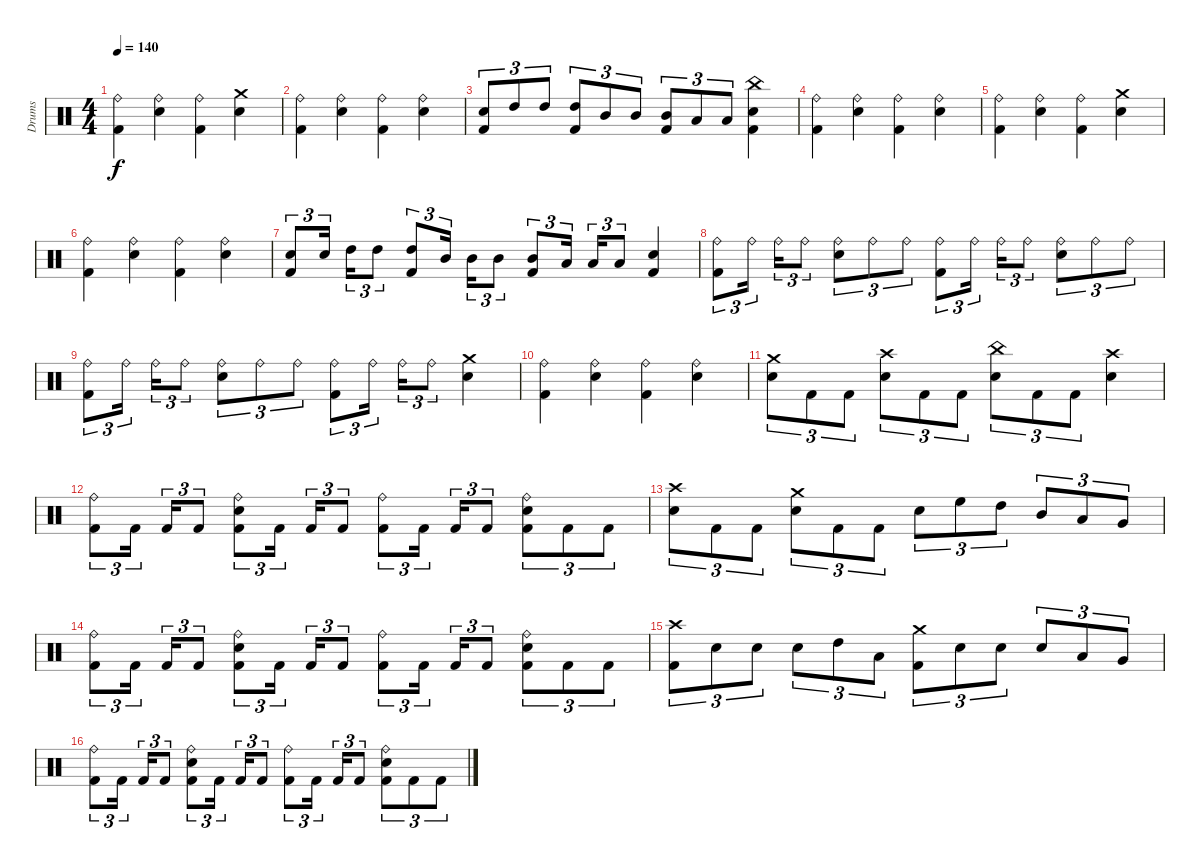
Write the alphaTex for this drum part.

\track ("Drums" "Drums") {instrument percussion}
\staff {score}
\articulation defaults
\ts (4 4)
\tempo 140
\clef neutral
\ks c
("Ride (bell)" "Kick (hit) 2").4{dy f} ("Ride (bell)" "Electric Snare (hit)").4 ("Ride (bell)" "Kick (hit) 2").4 ("Crash medium (hit)" "Electric Snare (hit)").4 |
("Ride (bell)" "Kick (hit) 2").4 ("Ride (bell)" "Electric Snare (hit)").4 ("Ride (bell)" "Kick (hit) 2").4 ("Ride (bell)" "Electric Snare (hit)").4 |
("Electric Snare (hit)" "Kick (hit) 2").8{tu (3 2)} "High Tom (hit)".8{tu (3 2)} "High Tom (hit)".8{tu (3 2)} ("High Tom (hit)" "Kick (hit) 2").8{tu (3 2)} "Mid Tom (hit)".8{tu (3 2)} "Mid Tom (hit)".8{tu (3 2)} ("Mid Tom (hit)" "Kick (hit) 2").8{tu (3 2)} "Low Tom (hit)".8{tu (3 2)} "Low Tom (hit)".8{tu (3 2)} ("China (hit)" "Electric Snare (hit)" "Kick (hit) 2").4 |
("Ride (bell)" "Kick (hit) 2").4 ("Ride (bell)" "Electric Snare (hit)").4 ("Ride (bell)" "Kick (hit) 2").4 ("Ride (bell)" "Electric Snare (hit)").4 |
("Ride (bell)" "Kick (hit) 2").4 ("Ride (bell)" "Electric Snare (hit)").4 ("Ride (bell)" "Kick (hit) 2").4 ("Crash medium (hit)" "Electric Snare (hit)").4 |
("Ride (bell)" "Kick (hit) 2").4 ("Ride (bell)" "Electric Snare (hit)").4 ("Ride (bell)" "Kick (hit) 2").4 ("Ride (bell)" "Electric Snare (hit)").4 |
("Electric Snare (hit)" "Kick (hit) 2").8{tu (3 2)} "Electric Snare (hit)".16{tu (3 2)} "High Tom (hit)".16{tu (3 2)} "High Tom (hit)".8{tu (3 2)} ("High Tom (hit)" "Kick (hit) 2").8{tu (3 2)} "Mid Tom (hit)".16{tu (3 2)} "Mid Tom (hit)".16{tu (3 2)} "Mid Tom (hit)".8{tu (3 2)} ("Mid Tom (hit)" "Kick (hit) 2").8{tu (3 2)} "Low Tom (hit)".16{tu (3 2)} "Low Tom (hit)".16{tu (3 2)} "Low Tom (hit)".8{tu (3 2)} ("Electric Snare (hit)" "Kick (hit) 2").4 |
("Ride (bell)" "Kick (hit) 2").8{tu (3 2)} "Ride (bell)".16{tu (3 2)} "Ride (bell)".16{tu (3 2)} "Ride (bell)".8{tu (3 2)} ("Ride (bell)" "Electric Snare (hit)").8{tu (3 2)} "Ride (bell)".8{tu (3 2)} "Ride (bell)".8{tu (3 2)} ("Ride (bell)" "Kick (hit) 2").8{tu (3 2)} "Ride (bell)".16{tu (3 2)} "Ride (bell)".16{tu (3 2)} "Ride (bell)".8{tu (3 2)} ("Ride (bell)" "Electric Snare (hit)").8{tu (3 2)} "Ride (bell)".8{tu (3 2)} "Ride (bell)".8{tu (3 2)} |
("Ride (bell)" "Kick (hit) 2").8{tu (3 2)} "Ride (bell)".16{tu (3 2)} "Ride (bell)".16{tu (3 2)} "Ride (bell)".8{tu (3 2)} ("Ride (bell)" "Electric Snare (hit)").8{tu (3 2)} "Ride (bell)".8{tu (3 2)} "Ride (bell)".8{tu (3 2)} ("Ride (bell)" "Kick (hit) 2").8{tu (3 2)} "Ride (bell)".16{tu (3 2)} "Ride (bell)".16{tu (3 2)} "Ride (bell)".8{tu (3 2)} ("Crash medium (hit)" "Electric Snare (hit)").4 |
("Ride (bell)" "Kick (hit) 2").4 ("Ride (bell)" "Electric Snare (hit)").4 ("Ride (bell)" "Kick (hit) 2").4 ("Ride (bell)" "Electric Snare (hit)").4 |
("Crash medium (hit)" "Electric Snare (hit)").8{tu (3 2)} "Kick (hit) 2".8{tu (3 2)} "Kick (hit) 2".8{tu (3 2)} ("Crash high (hit)" "Electric Snare (hit)").8{tu (3 2)} "Kick (hit) 2".8{tu (3 2)} "Kick (hit) 2".8{tu (3 2)} ("China (hit)" "Electric Snare (hit)").8{tu (3 2)} "Kick (hit) 2".8{tu (3 2)} "Kick (hit) 2".8{tu (3 2)} ("Crash high (hit)" "Electric Snare (hit)").4 |
\section ("" "")
("Ride (bell)" "Kick (hit) 2").8{tu (3 2)} "Kick (hit) 2".16{tu (3 2)} "Kick (hit) 2".16{tu (3 2)} "Kick (hit) 2".8{tu (3 2)} ("Ride (bell)" "Electric Snare (hit)" "Kick (hit) 2").8{tu (3 2)} "Kick (hit) 2".16{tu (3 2)} "Kick (hit) 2".16{tu (3 2)} "Kick (hit) 2".8{tu (3 2)} ("Ride (bell)" "Kick (hit) 2").8{tu (3 2)} "Kick (hit) 2".16{tu (3 2)} "Kick (hit) 2".16{tu (3 2)} "Kick (hit) 2".8{tu (3 2)} ("Ride (bell)" "Electric Snare (hit)" "Kick (hit) 2").8{tu (3 2)} "Kick (hit) 2".8{tu (3 2)} "Kick (hit) 2".8{tu (3 2)} |
("Crash high (hit)" "Electric Snare (hit)").8{tu (3 2)} "Kick (hit) 2".8{tu (3 2)} "Kick (hit) 2".8{tu (3 2)} ("Crash medium (hit)" "Electric Snare (hit)").8{tu (3 2)} "Kick (hit) 2".8{tu (3 2)} "Kick (hit) 2".8{tu (3 2)} "Electric Snare (hit)".8{tu (3 2)} "High Floor Tom (hit)".8{tu (3 2)} "High Tom (hit)".8{tu (3 2)} "Mid Tom (hit)".8{tu (3 2)} "Low Tom (hit)".8{tu (3 2)} "Very Low Tom (hit)".8{tu (3 2)} |
("Ride (bell)" "Kick (hit) 2").8{tu (3 2)} "Kick (hit) 2".16{tu (3 2)} "Kick (hit) 2".16{tu (3 2)} "Kick (hit) 2".8{tu (3 2)} ("Ride (bell)" "Electric Snare (hit)" "Kick (hit) 2").8{tu (3 2)} "Kick (hit) 2".16{tu (3 2)} "Kick (hit) 2".16{tu (3 2)} "Kick (hit) 2".8{tu (3 2)} ("Ride (bell)" "Kick (hit) 2").8{tu (3 2)} "Kick (hit) 2".16{tu (3 2)} "Kick (hit) 2".16{tu (3 2)} "Kick (hit) 2".8{tu (3 2)} ("Ride (bell)" "Electric Snare (hit)" "Kick (hit) 2").8{tu (3 2)} "Kick (hit) 2".8{tu (3 2)} "Kick (hit) 2".8{tu (3 2)} |
("Crash high (hit)" "Kick (hit) 2").8{tu (3 2)} "Electric Snare (hit)".8{tu (3 2)} "Electric Snare (hit)".8{tu (3 2)} "Electric Snare (hit)".8{tu (3 2)} "High Tom (hit)".8{tu (3 2)} "Low Tom (hit)".8{tu (3 2)} ("Crash medium (hit)" "Kick (hit) 2").8{tu (3 2)} "Electric Snare (hit)".8{tu (3 2)} "Electric Snare (hit)".8{tu (3 2)} "Electric Snare (hit)".8{tu (3 2)} "Low Tom (hit)".8{tu (3 2)} "Very Low Tom (hit)".8{tu (3 2)} |
("Ride (bell)" "Kick (hit) 2").8{tu (3 2)} "Kick (hit) 2".16{tu (3 2)} "Kick (hit) 2".16{tu (3 2)} "Kick (hit) 2".8{tu (3 2)} ("Ride (bell)" "Electric Snare (hit)" "Kick (hit) 2").8{tu (3 2)} "Kick (hit) 2".16{tu (3 2)} "Kick (hit) 2".16{tu (3 2)} "Kick (hit) 2".8{tu (3 2)} ("Ride (bell)" "Kick (hit) 2").8{tu (3 2)} "Kick (hit) 2".16{tu (3 2)} "Kick (hit) 2".16{tu (3 2)} "Kick (hit) 2".8{tu (3 2)} ("Ride (bell)" "Electric Snare (hit)" "Kick (hit) 2").8{tu (3 2)} "Kick (hit) 2".8{tu (3 2)} "Kick (hit) 2".8{tu (3 2)}
